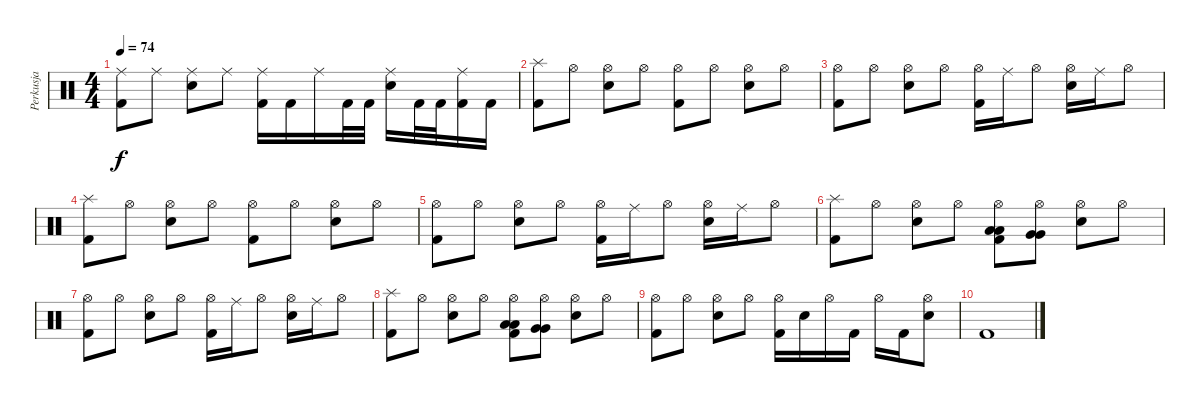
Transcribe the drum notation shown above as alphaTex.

\track ("Perkusja" "Perkusja") {instrument percussion}
\staff {score}
\articulation defaults
\ts (4 4)
\tempo 74
\clef neutral
\ks c
("Ride (middle)" "Kick (hit) 2").8{dy f} "Ride (middle)".8 ("Ride (middle)" "Electric Snare (hit)").8 "Ride (middle)".8 ("Ride (middle)" "Kick (hit) 2").16 "Kick (hit) 2".16 "Ride (middle)".16 "Kick (hit) 2".32 "Kick (hit) 2".32 ("Ride (middle)" "Electric Snare (hit)").16 "Kick (hit) 2".32 "Kick (hit) 2".32 ("Ride (middle)" "Kick (hit) 2").16 "Kick (hit) 2".16 |
("Splash (hit)" "Kick (hit) 2").8 "Hi-Hat (open)".8 ("Hi-Hat (open)" "Electric Snare (hit)").8 "Hi-Hat (open)".8 ("Hi-Hat (open)" "Kick (hit) 2").8 "Hi-Hat (open)".8 ("Hi-Hat (open)" "Electric Snare (hit)").8 "Hi-Hat (open)".8 |
("Hi-Hat (open)" "Kick (hit) 2").8 "Hi-Hat (open)".8 ("Hi-Hat (open)" "Electric Snare (hit)").8 "Hi-Hat (open)".8 ("Hi-Hat (open)" "Kick (hit) 2").16 "Ride (middle)".16 "Hi-Hat (open)".8 ("Hi-Hat (open)" "Electric Snare (hit)").16 "Ride (middle)".16 "Hi-Hat (open)".8 |
("Splash (hit)" "Kick (hit) 2").8 "Hi-Hat (open)".8 ("Hi-Hat (open)" "Electric Snare (hit)").8 "Hi-Hat (open)".8 ("Hi-Hat (open)" "Kick (hit) 2").8 "Hi-Hat (open)".8 ("Hi-Hat (open)" "Electric Snare (hit)").8 "Hi-Hat (open)".8 |
("Hi-Hat (open)" "Kick (hit) 2").8 "Hi-Hat (open)".8 ("Hi-Hat (open)" "Electric Snare (hit)").8 "Hi-Hat (open)".8 ("Hi-Hat (open)" "Kick (hit) 2").16 "Ride (middle)".16 "Hi-Hat (open)".8 ("Hi-Hat (open)" "Electric Snare (hit)").16 "Ride (middle)".16 "Hi-Hat (open)".8 |
("Splash (hit)" "Kick (hit) 2").8 "Hi-Hat (open)".8 ("Hi-Hat (open)" "Electric Snare (hit)").8 "Hi-Hat (open)".8 ("Hi-Hat (open)" "Low Tom (hit)" "Low Tom (hit)" "Kick (hit) 2").8 ("Hi-Hat (open)" "Very Low Tom (hit)" "Very Low Tom (hit)").8 ("Hi-Hat (open)" "Electric Snare (hit)").8 "Hi-Hat (open)".8 |
("Hi-Hat (open)" "Kick (hit) 2").8 "Hi-Hat (open)".8 ("Hi-Hat (open)" "Electric Snare (hit)").8 "Hi-Hat (open)".8 ("Hi-Hat (open)" "Kick (hit) 2").16 "Ride (middle)".16 "Hi-Hat (open)".8 ("Hi-Hat (open)" "Electric Snare (hit)").16 "Ride (middle)".16 "Hi-Hat (open)".8 |
("Splash (hit)" "Kick (hit) 2").8 "Hi-Hat (open)".8 ("Hi-Hat (open)" "Electric Snare (hit)").8 "Hi-Hat (open)".8 ("Hi-Hat (open)" "Low Tom (hit)" "Low Tom (hit)" "Kick (hit) 2").8 ("Hi-Hat (open)" "Very Low Tom (hit)" "Very Low Tom (hit)").8 ("Hi-Hat (open)" "Electric Snare (hit)").8 "Hi-Hat (open)".8 |
("Hi-Hat (open)" "Kick (hit) 2").8 "Hi-Hat (open)".8 ("Hi-Hat (open)" "Electric Snare (hit)").8 "Hi-Hat (open)".8 ("Hi-Hat (open)" "Kick (hit) 2").16 "Electric Snare (hit)".16 "Hi-Hat (open)".16 "Kick (hit) 2".16 "Hi-Hat (open)".16 "Kick (hit) 2".16 ("Hi-Hat (open)" "Electric Snare (hit)").8 |
"Kick (hit) 2".1
